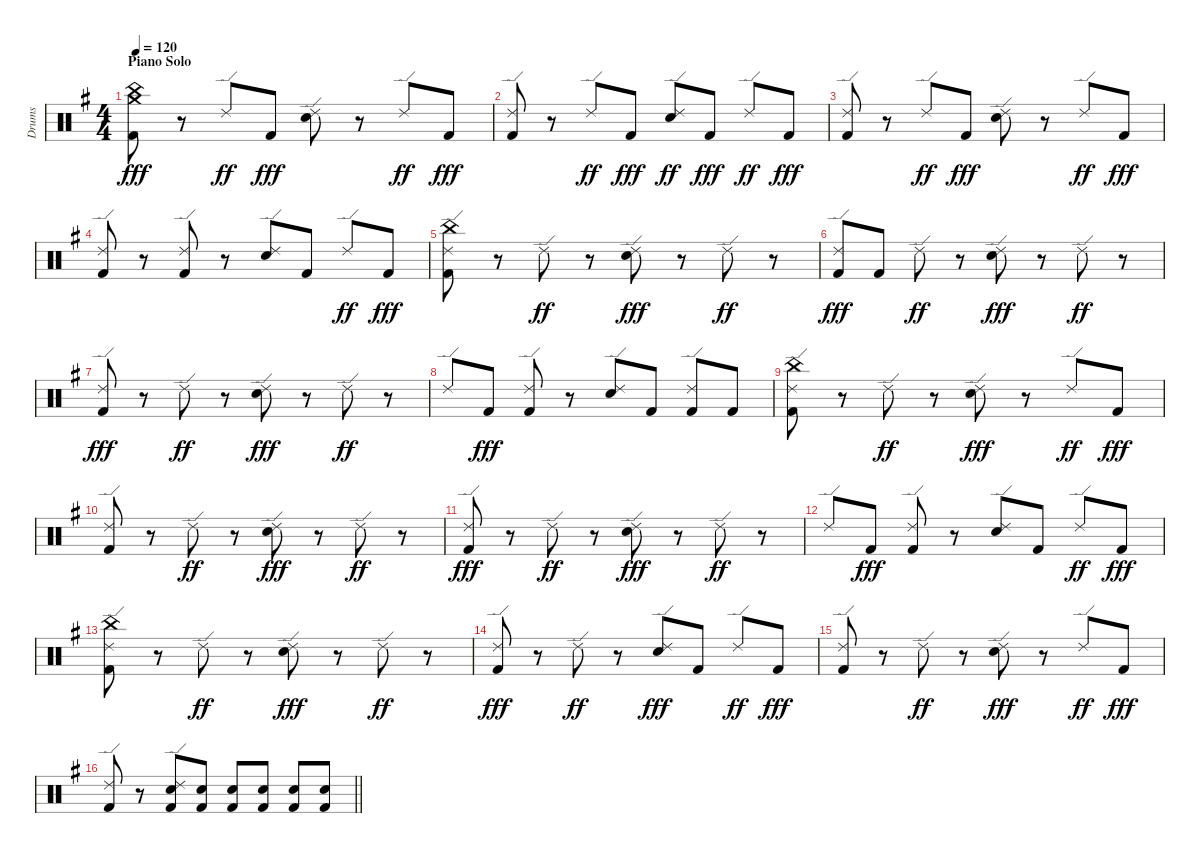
\track ("Drums" "Drums") {instrument percussion}
\staff {score}
\articulation defaults
\ts (4 4)
\section ("" "Piano Solo")
\tempo 120
\clef neutral
\ks g
("Crash medium (hit)" "China (hit)" "Kick (hit) 2").8{dy fff} r.8 "Ride (edge) 2".8{dy ff} "Kick (hit) 2".8{dy fff} ("Ride (edge) 2" "Electric Snare (hit)").8 r.8 "Ride (edge) 2".8{dy ff} "Kick (hit) 2".8{dy fff} |
("Ride (edge) 2" "Kick (hit) 2").8 r.8 "Ride (edge) 2".8{dy ff} "Kick (hit) 2".8{dy fff} ("Ride (edge) 2" "Electric Snare (hit)").8{dy ff} "Kick (hit) 2".8{dy fff} "Ride (edge) 2".8{dy ff} "Kick (hit) 2".8{dy fff} |
("Ride (edge) 2" "Kick (hit) 2").8 r.8 "Ride (edge) 2".8{dy ff} "Kick (hit) 2".8{dy fff} ("Ride (edge) 2" "Electric Snare (hit)").8 r.8 "Ride (edge) 2".8{dy ff} "Kick (hit) 2".8{dy fff} |
("Ride (edge) 2" "Kick (hit) 2").8 r.8 ("Ride (edge) 2" "Kick (hit) 2").8 r.8 ("Ride (edge) 2" "Electric Snare (hit)").8 "Kick (hit) 2".8 "Ride (edge) 2".8{dy ff} "Kick (hit) 2".8{dy fff} |
("Ride (edge) 2" "China (hit)" "Kick (hit) 2").8 r.8 "Ride (edge) 2".8{dy ff} r.8 ("Ride (edge) 2" "Electric Snare (hit)").8{dy fff} r.8 "Ride (edge) 2".8{dy ff} r.8 |
("Ride (edge) 2" "Kick (hit) 2").8{dy fff} "Kick (hit) 2".8 "Ride (edge) 2".8{dy ff} r.8 ("Ride (edge) 2" "Electric Snare (hit)").8{dy fff} r.8 "Ride (edge) 2".8{dy ff} r.8 |
("Ride (edge) 2" "Kick (hit) 2").8{dy fff} r.8 "Ride (edge) 2".8{dy ff} r.8 ("Ride (edge) 2" "Electric Snare (hit)").8{dy fff} r.8 "Ride (edge) 2".8{dy ff} r.8 |
"Ride (edge) 2".8 "Kick (hit) 2".8{dy fff} ("Ride (edge) 2" "Kick (hit) 2").8 r.8 ("Ride (edge) 2" "Electric Snare (hit)").8 "Kick (hit) 2".8 ("Ride (edge) 2" "Kick (hit) 2").8 "Kick (hit) 2".8 |
("Ride (edge) 2" "China (hit)" "Kick (hit) 2").8 r.8 "Ride (edge) 2".8{dy ff} r.8 ("Ride (edge) 2" "Electric Snare (hit)").8{dy fff} r.8 "Ride (edge) 2".8{dy ff} "Kick (hit) 2".8{dy fff} |
("Ride (edge) 2" "Kick (hit) 2").8 r.8 "Ride (edge) 2".8{dy ff} r.8 ("Ride (edge) 2" "Electric Snare (hit)").8{dy fff} r.8 "Ride (edge) 2".8{dy ff} r.8 |
("Ride (edge) 2" "Kick (hit) 2").8{dy fff} r.8 "Ride (edge) 2".8{dy ff} r.8 ("Ride (edge) 2" "Electric Snare (hit)").8{dy fff} r.8 "Ride (edge) 2".8{dy ff} r.8 |
"Ride (edge) 2".8 "Kick (hit) 2".8{dy fff} ("Ride (edge) 2" "Kick (hit) 2").8 r.8 ("Ride (edge) 2" "Electric Snare (hit)").8 "Kick (hit) 2".8 "Ride (edge) 2".8{dy ff} "Kick (hit) 2".8{dy fff} |
("Ride (edge) 2" "China (hit)" "Kick (hit) 2").8 r.8 "Ride (edge) 2".8{dy ff} r.8 ("Ride (edge) 2" "Electric Snare (hit)").8{dy fff} r.8 "Ride (edge) 2".8{dy ff} r.8 |
("Ride (edge) 2" "Kick (hit) 2").8{dy fff} r.8 "Ride (edge) 2".8{dy ff} r.8 ("Ride (edge) 2" "Electric Snare (hit)").8{dy fff} "Kick (hit) 2".8 "Ride (edge) 2".8{dy ff} "Kick (hit) 2".8{dy fff} |
("Ride (edge) 2" "Kick (hit) 2").8 r.8 "Ride (edge) 2".8{dy ff} r.8 ("Ride (edge) 2" "Electric Snare (hit)").8{dy fff} r.8 "Ride (edge) 2".8{dy ff} "Kick (hit) 2".8{dy fff} |
\barLineRight lightlight
("Ride (edge) 2" "Kick (hit) 2").8 r.8 ("Ride (edge) 2" "Electric Snare (hit)" "Kick (hit) 2").8 ("Electric Snare (hit)" "Kick (hit) 2").8 ("Electric Snare (hit)" "Kick (hit) 2").8 ("Electric Snare (hit)" "Kick (hit) 2").8 ("Electric Snare (hit)" "Kick (hit) 2").8 ("Electric Snare (hit)" "Kick (hit) 2").8
